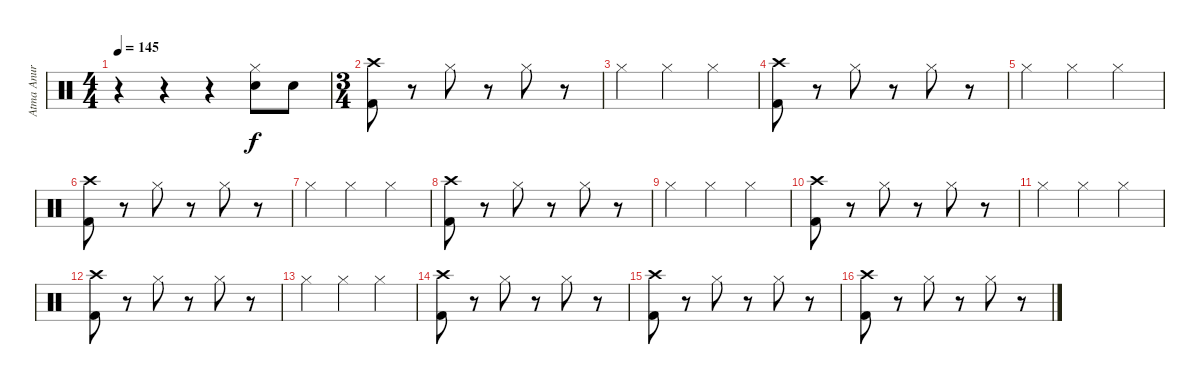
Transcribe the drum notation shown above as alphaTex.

\track ("Atma Anur" "Atma Anur") {instrument percussion}
\staff {score}
\articulation defaults
\ts (4 4)
\tempo 145
\clef neutral
\ks c
r.4{dy f} r.4 r.4 ("Hi-Hat (closed)" "Snare (hit) 2").8 "Snare (hit) 2".8 |
\ts (3 4)
("Crash high (hit)" "Kick (hit) 2").8 r.8 "Hi-Hat (closed)".8 r.8 "Hi-Hat (closed)".8 r.8 |
"Hi-Hat (closed)".4 "Hi-Hat (closed)".4 "Hi-Hat (closed)".4 |
("Crash high (hit)" "Kick (hit) 2").8 r.8 "Hi-Hat (closed)".8 r.8 "Hi-Hat (closed)".8 r.8 |
"Hi-Hat (closed)".4 "Hi-Hat (closed)".4 "Hi-Hat (closed)".4 |
("Crash high (hit)" "Kick (hit) 2").8 r.8 "Hi-Hat (closed)".8 r.8 "Hi-Hat (closed)".8 r.8 |
"Hi-Hat (closed)".4 "Hi-Hat (closed)".4 "Hi-Hat (closed)".4 |
("Crash high (hit)" "Kick (hit) 2").8 r.8 "Hi-Hat (closed)".8 r.8 "Hi-Hat (closed)".8 r.8 |
"Hi-Hat (closed)".4 "Hi-Hat (closed)".4 "Hi-Hat (closed)".4 |
("Crash high (hit)" "Kick (hit) 2").8 r.8 "Hi-Hat (closed)".8 r.8 "Hi-Hat (closed)".8 r.8 |
"Hi-Hat (closed)".4 "Hi-Hat (closed)".4 "Hi-Hat (closed)".4 |
("Crash high (hit)" "Kick (hit) 2").8 r.8 "Hi-Hat (closed)".8 r.8 "Hi-Hat (closed)".8 r.8 |
"Hi-Hat (closed)".4 "Hi-Hat (closed)".4 "Hi-Hat (closed)".4 |
("Crash high (hit)" "Kick (hit) 2").8 r.8 "Hi-Hat (closed)".8 r.8 "Hi-Hat (closed)".8 r.8 |
("Crash high (hit)" "Kick (hit) 2").8 r.8 "Hi-Hat (closed)".8 r.8 "Hi-Hat (closed)".8 r.8 |
("Crash high (hit)" "Kick (hit) 2").8 r.8 "Hi-Hat (closed)".8 r.8 "Hi-Hat (closed)".8 r.8
